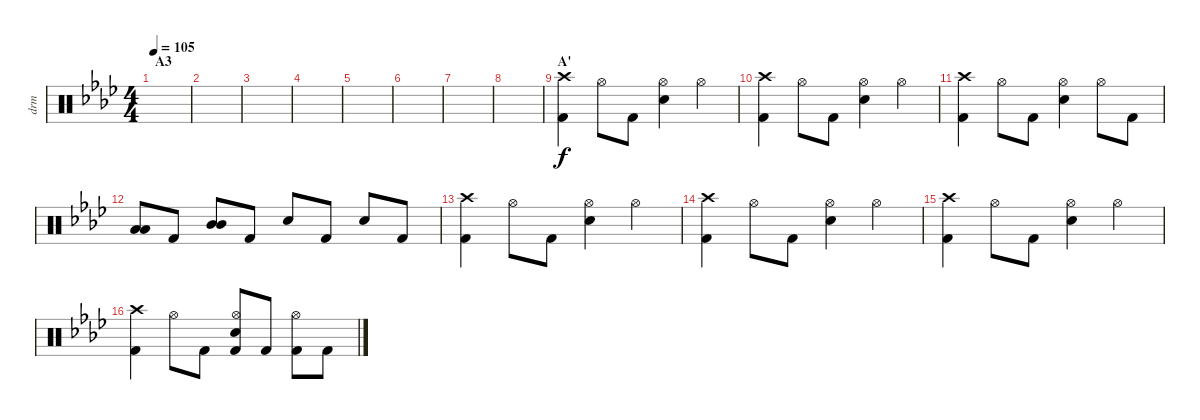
\track ("drm" "drm") {instrument percussion}
\staff {score}
\articulation defaults
\ts (4 4)
\section ("" "A3")
\tempo 105
\clef neutral
\ks ab
|
|
|
|
|
|
|
|
\section ("" "A'")
("Crash high (hit)" "Kick (hit) 2").4 "Hi-Hat (open)".8 "Kick (hit) 2".8 ("Hi-Hat (open)" "Electric Snare (hit)").4 "Hi-Hat (open)".4 |
("Crash high (hit)" "Kick (hit) 2").4 "Hi-Hat (open)".8 "Kick (hit) 2".8 ("Hi-Hat (open)" "Electric Snare (hit)").4 "Hi-Hat (open)".4 |
("Crash high (hit)" "Kick (hit) 2").4 "Hi-Hat (open)".8 "Kick (hit) 2".8 ("Hi-Hat (open)" "Electric Snare (hit)").4 "Hi-Hat (open)".8 "Kick (hit) 2".8 |
("Low Tom (hit)" "Low Tom (hit)").8 "Kick (hit) 2".8 ("Mid Tom (hit)" "Mid Tom (hit)").8 "Kick (hit) 2".8 "Electric Snare (hit)".8 "Kick (hit) 2".8 "Electric Snare (hit)".8 "Kick (hit) 2".8 |
("Crash high (hit)" "Kick (hit) 2").4 "Hi-Hat (open)".8 "Kick (hit) 2".8 ("Hi-Hat (open)" "Electric Snare (hit)").4 "Hi-Hat (open)".4 |
("Crash high (hit)" "Kick (hit) 2").4 "Hi-Hat (open)".8 "Kick (hit) 2".8 ("Hi-Hat (open)" "Electric Snare (hit)").4 "Hi-Hat (open)".4 |
("Crash high (hit)" "Kick (hit) 2").4 "Hi-Hat (open)".8 "Kick (hit) 2".8 ("Hi-Hat (open)" "Electric Snare (hit)").4 "Hi-Hat (open)".4 |
("Crash high (hit)" "Kick (hit) 2").4 "Hi-Hat (open)".8 "Kick (hit) 2".8 ("Hi-Hat (open)" "Electric Snare (hit)" "Kick (hit) 2").8 "Kick (hit) 2".8 ("Hi-Hat (open)" "Kick (hit) 2").8 "Kick (hit) 2".8
